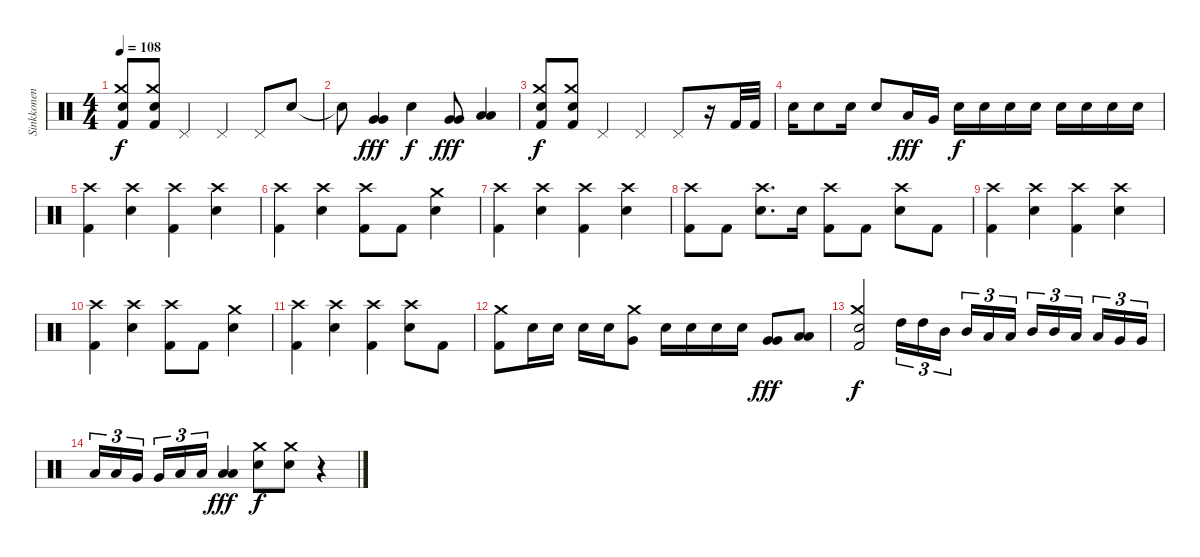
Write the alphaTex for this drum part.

\track ("Sinkkonen" "Sinkkonen") {instrument percussion}
\staff {score}
\articulation defaults
\ts (4 4)
\tempo 108
\clef neutral
\ks c
("Kick (hit) 2" "Crash medium (hit)" "Snare (hit) 2").8{dy f} ("Kick (hit) 2" "Crash medium (hit)" "Snare (hit) 2").8 "Pedal Hi-Hat (hit)".4 "Pedal Hi-Hat (hit)".4 "Pedal Hi-Hat (hit)".8 "Snare (hit) 2".8 |
"Snare (hit) 2"{t}.8 ("Very Low Tom (hit)" "Very Low Tom (hit)").4{dy fff} "Snare (hit) 2".4{dy f} ("Very Low Tom (hit)" "Very Low Tom (hit)").8{dy fff} ("Low Floor Tom (hit)" "Low Floor Tom (hit)").4 |
("Kick (hit) 2" "Crash medium (hit)" "Snare (hit) 2").8{dy f} ("Kick (hit) 2" "Crash medium (hit)" "Snare (hit) 2").8 "Pedal Hi-Hat (hit)".4 "Pedal Hi-Hat (hit)".4 "Pedal Hi-Hat (hit)".8 r.16 "Kick (hit) 2".32 "Kick (hit) 2".32 |
"Snare (hit) 2".16 "Snare (hit) 2".8 "Snare (hit) 2".16 "Snare (hit) 2".8 "Low Tom (hit)".16{dy fff} "Very Low Tom (hit)".16 "Snare (hit) 2".16{dy f} "Snare (hit) 2".16 "Snare (hit) 2".16 "Snare (hit) 2".16 "Snare (hit) 2".16 "Snare (hit) 2".16 "Snare (hit) 2".16 "Snare (hit) 2".16 |
("Kick (hit) 2" "Crash high (hit)").4 ("Crash high (hit)" "Snare (hit) 2").4 ("Kick (hit) 2" "Crash high (hit)").4 ("Crash high (hit)" "Snare (hit) 2").4 |
("Kick (hit) 2" "Crash high (hit)").4 ("Crash high (hit)" "Snare (hit) 2").4 ("Kick (hit) 2" "Crash high (hit)").8 "Kick (hit) 2".8 ("Crash medium (hit)" "Snare (hit) 2").4 |
("Kick (hit) 2" "Crash high (hit)").4 ("Crash high (hit)" "Snare (hit) 2").4 ("Kick (hit) 2" "Crash high (hit)").4 ("Crash high (hit)" "Snare (hit) 2").4 |
("Kick (hit) 2" "Crash high (hit)").8 "Kick (hit) 2".8 ("Crash high (hit)" "Snare (hit) 2").8{d} "Snare (hit) 2".16 ("Kick (hit) 2" "Crash high (hit)").8 "Kick (hit) 2".8 ("Crash high (hit)" "Snare (hit) 2").8 "Kick (hit) 2".8 |
("Kick (hit) 2" "Crash high (hit)").4 ("Crash high (hit)" "Snare (hit) 2").4 ("Kick (hit) 2" "Crash high (hit)").4 ("Crash high (hit)" "Snare (hit) 2").4 |
("Kick (hit) 2" "Crash high (hit)").4 ("Crash high (hit)" "Snare (hit) 2").4 ("Kick (hit) 2" "Crash high (hit)").8 "Kick (hit) 2".8 ("Crash medium (hit)" "Snare (hit) 2").4 |
("Kick (hit) 2" "Crash high (hit)").4 ("Crash high (hit)" "Snare (hit) 2").4 ("Kick (hit) 2" "Crash high (hit)").4 ("Crash high (hit)" "Snare (hit) 2").8 "Kick (hit) 2".8 |
("Kick (hit) 2" "Crash medium (hit)").8 "Snare (hit) 2".16 "Snare (hit) 2".16 "Snare (hit) 2".16 "Snare (hit) 2".16 ("Crash medium (hit)" "Very Low Tom (hit)").8 "Snare (hit) 2".16 "Snare (hit) 2".16 "Snare (hit) 2".16 "Snare (hit) 2".16 ("Very Low Tom (hit)" "Very Low Tom (hit)").8{dy fff} ("Low Floor Tom (hit)" "Low Floor Tom (hit)").8 |
("Kick (hit) 2" "Crash medium (hit)" "Snare (hit) 2").2{dy f} "High Tom (hit)".16{tu (3 2)} "High Tom (hit)".16{tu (3 2)} "Mid Tom (hit)".16{tu (3 2)} "Mid Tom (hit)".16{tu (3 2)} "Low Tom (hit)".16{tu (3 2)} "Low Tom (hit)".16{tu (3 2)} "Mid Tom (hit)".16{tu (3 2)} "Mid Tom (hit)".16{tu (3 2)} "Low Tom (hit)".16{tu (3 2)} "Low Tom (hit)".16{tu (3 2)} "Very Low Tom (hit)".16{tu (3 2)} "Very Low Tom (hit)".16{tu (3 2)} |
"Low Floor Tom (hit)".16{tu (3 2)} "Low Floor Tom (hit)".16{tu (3 2)} "Very Low Tom (hit)".16{tu (3 2)} "Very Low Tom (hit)".16{tu (3 2)} "Low Floor Tom (hit)".16{tu (3 2)} "Low Floor Tom (hit)".16{tu (3 2)} ("Low Floor Tom (hit)" "Low Floor Tom (hit)").4{dy fff} ("Crash medium (hit)" "Snare (hit) 2").8{dy f} ("Crash medium (hit)" "Snare (hit) 2").8 r.4
